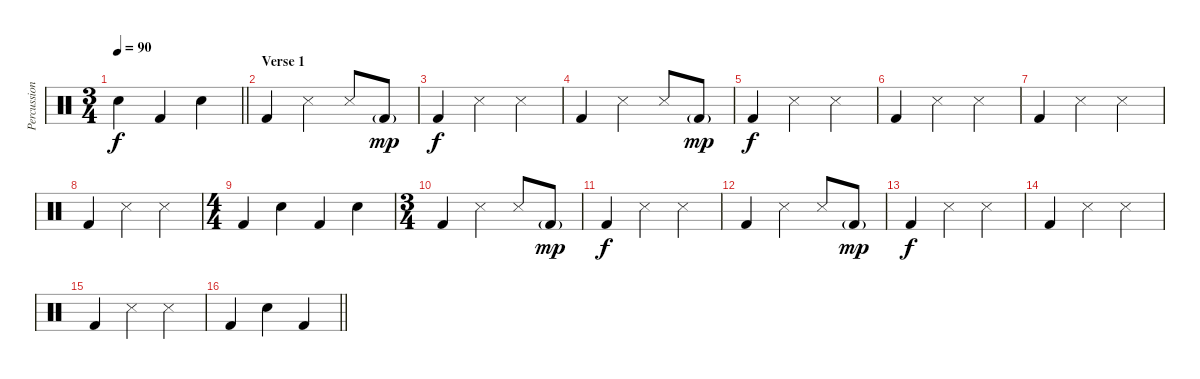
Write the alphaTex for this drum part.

\track ("Percussion" "Percussion") {instrument percussion}
\staff {score}
\articulation defaults
\ts (3 4)
\tempo 90
\clef neutral
\barLineRight lightlight
\ks c "Snare (hit) 2".4{dy f} "Kick (hit) 2".4 "Snare (hit) 2".4
|
\section ("" "Verse 1")
"Kick (hit) 2".4 "Snare (side stick) 3".4 "Snare (side stick) 3".8 "Kick (hit) 2"{g}.8{dy mp} |
"Kick (hit) 2".4{dy f} "Snare (side stick) 3".4 "Snare (side stick) 3".4 |
"Kick (hit) 2".4 "Snare (side stick) 3".4 "Snare (side stick) 3".8 "Kick (hit) 2"{g}.8{dy mp} |
"Kick (hit) 2".4{dy f} "Snare (side stick) 3".4 "Snare (side stick) 3".4 |
"Kick (hit) 2".4 "Snare (side stick) 3".4 "Snare (side stick) 3".4 |
"Kick (hit) 2".4 "Snare (side stick) 3".4 "Snare (side stick) 3".4 |
"Kick (hit) 2".4 "Snare (side stick) 3".4 "Snare (side stick) 3".4 |
\ts (4 4)
"Kick (hit) 2".4 "Snare (hit) 2".4 "Kick (hit) 2".4 "Snare (hit) 2".4 |
\ts (3 4)
"Kick (hit) 2".4 "Snare (side stick) 3".4 "Snare (side stick) 3".8 "Kick (hit) 2"{g}.8{dy mp} |
"Kick (hit) 2".4{dy f} "Snare (side stick) 3".4 "Snare (side stick) 3".4 |
"Kick (hit) 2".4 "Snare (side stick) 3".4 "Snare (side stick) 3".8 "Kick (hit) 2"{g}.8{dy mp} |
"Kick (hit) 2".4{dy f} "Snare (side stick) 3".4 "Snare (side stick) 3".4 |
"Kick (hit) 2".4 "Snare (side stick) 3".4 "Snare (side stick) 3".4 |
"Kick (hit) 2".4 "Snare (side stick) 3".4 "Snare (side stick) 3".4 |
\barLineRight lightlight "Kick (hit) 2".4 "Snare (hit) 2".4 "Kick (hit) 2".4
